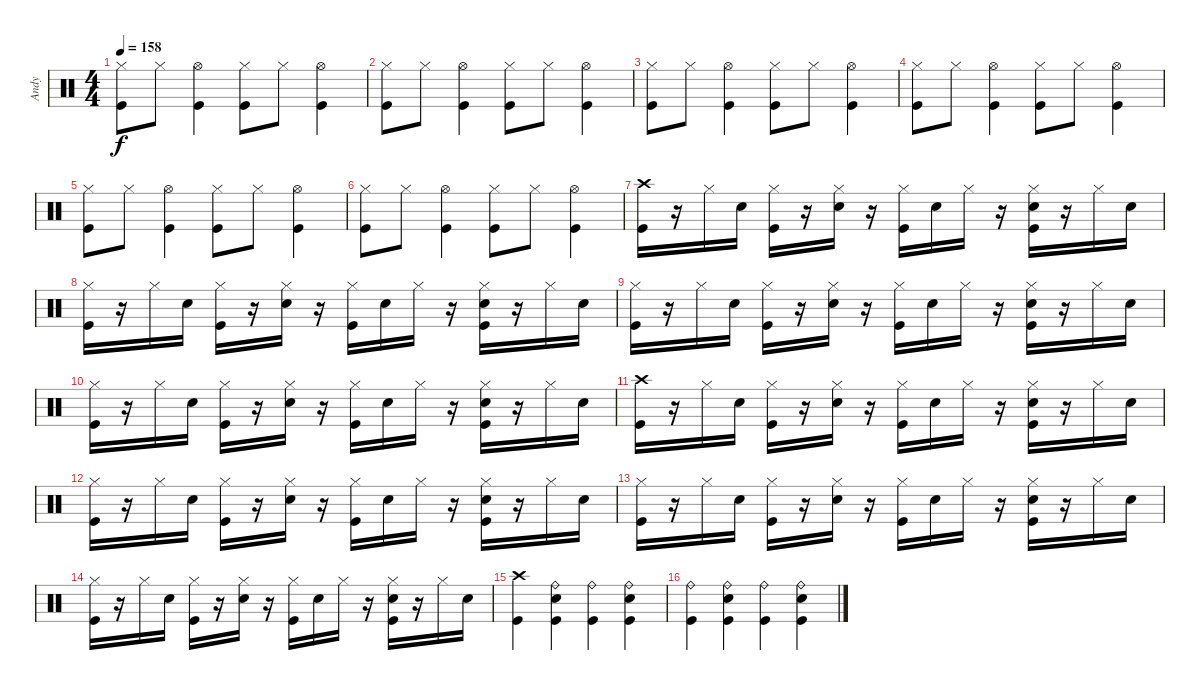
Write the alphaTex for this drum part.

\track ("Andy" "Andy") {instrument percussion}
\staff {score}
\articulation defaults
\ts (4 4)
\tempo 158
\clef neutral
\ks c
("Hi-Hat (closed)" "Kick (hit)").8{dy f} "Hi-Hat (closed)".8 ("Hi-Hat (open)" "Kick (hit)").4 ("Hi-Hat (closed)" "Kick (hit)").8 "Hi-Hat (closed)".8 ("Hi-Hat (open)" "Kick (hit)").4 |
("Hi-Hat (closed)" "Kick (hit)").8 "Hi-Hat (closed)".8 ("Hi-Hat (open)" "Kick (hit)").4 ("Hi-Hat (closed)" "Kick (hit)").8 "Hi-Hat (closed)".8 ("Hi-Hat (open)" "Kick (hit)").4 |
("Hi-Hat (closed)" "Kick (hit)").8 "Hi-Hat (closed)".8 ("Hi-Hat (open)" "Kick (hit)").4 ("Hi-Hat (closed)" "Kick (hit)").8 "Hi-Hat (closed)".8 ("Hi-Hat (open)" "Kick (hit)").4 |
("Hi-Hat (closed)" "Kick (hit)").8 "Hi-Hat (closed)".8 ("Hi-Hat (open)" "Kick (hit)").4 ("Hi-Hat (closed)" "Kick (hit)").8 "Hi-Hat (closed)".8 ("Hi-Hat (open)" "Kick (hit)").4 |
("Hi-Hat (closed)" "Kick (hit)").8 "Hi-Hat (closed)".8 ("Hi-Hat (open)" "Kick (hit)").4 ("Hi-Hat (closed)" "Kick (hit)").8 "Hi-Hat (closed)".8 ("Hi-Hat (open)" "Kick (hit)").4 |
("Hi-Hat (closed)" "Kick (hit)").8 "Hi-Hat (closed)".8 ("Hi-Hat (open)" "Kick (hit)").4 ("Hi-Hat (closed)" "Kick (hit)").8 "Hi-Hat (closed)".8 ("Hi-Hat (open)" "Kick (hit)").4 |
("Kick (hit)" "Crash high (hit)").16 r.16 "Hi-Hat (closed)".16 "Snare (hit) 2".16 ("Kick (hit)" "Hi-Hat (closed)").16 r.16 ("Hi-Hat (closed)" "Snare (hit) 2").16 r.16 ("Kick (hit)" "Hi-Hat (closed)").16 "Snare (hit) 2".16 "Hi-Hat (closed)".16 r.16 ("Kick (hit)" "Hi-Hat (closed)" "Snare (hit) 2").16 r.16 "Hi-Hat (closed)".16 "Snare (hit) 2".16 |
("Kick (hit)" "Hi-Hat (closed)").16 r.16 "Hi-Hat (closed)".16 "Snare (hit) 2".16 ("Kick (hit)" "Hi-Hat (closed)").16 r.16 ("Hi-Hat (closed)" "Snare (hit) 2").16 r.16 ("Kick (hit)" "Hi-Hat (closed)").16 "Snare (hit) 2".16 "Hi-Hat (closed)".16 r.16 ("Kick (hit)" "Hi-Hat (closed)" "Snare (hit) 2").16 r.16 "Hi-Hat (closed)".16 "Snare (hit) 2".16 |
("Kick (hit)" "Hi-Hat (closed)").16 r.16 "Hi-Hat (closed)".16 "Snare (hit) 2".16 ("Kick (hit)" "Hi-Hat (closed)").16 r.16 ("Hi-Hat (closed)" "Snare (hit) 2").16 r.16 ("Kick (hit)" "Hi-Hat (closed)").16 "Snare (hit) 2".16 "Hi-Hat (closed)".16 r.16 ("Kick (hit)" "Hi-Hat (closed)" "Snare (hit) 2").16 r.16 "Hi-Hat (closed)".16 "Snare (hit) 2".16 |
("Kick (hit)" "Hi-Hat (closed)").16 r.16 "Hi-Hat (closed)".16 "Snare (hit) 2".16 ("Kick (hit)" "Hi-Hat (closed)").16 r.16 ("Hi-Hat (closed)" "Snare (hit) 2").16 r.16 ("Kick (hit)" "Hi-Hat (closed)").16 "Snare (hit) 2".16 "Hi-Hat (closed)".16 r.16 ("Kick (hit)" "Hi-Hat (closed)" "Snare (hit) 2").16 r.16 "Hi-Hat (closed)".16 "Snare (hit) 2".16 |
("Kick (hit)" "Crash high (hit)").16 r.16 "Hi-Hat (closed)".16 "Snare (hit) 2".16 ("Kick (hit)" "Hi-Hat (closed)").16 r.16 ("Hi-Hat (closed)" "Snare (hit) 2").16 r.16 ("Kick (hit)" "Hi-Hat (closed)").16 "Snare (hit) 2".16 "Hi-Hat (closed)".16 r.16 ("Kick (hit)" "Hi-Hat (closed)" "Snare (hit) 2").16 r.16 "Hi-Hat (closed)".16 "Snare (hit) 2".16 |
("Kick (hit)" "Hi-Hat (closed)").16 r.16 "Hi-Hat (closed)".16 "Snare (hit) 2".16 ("Kick (hit)" "Hi-Hat (closed)").16 r.16 ("Hi-Hat (closed)" "Snare (hit) 2").16 r.16 ("Kick (hit)" "Hi-Hat (closed)").16 "Snare (hit) 2".16 "Hi-Hat (closed)".16 r.16 ("Kick (hit)" "Hi-Hat (closed)" "Snare (hit) 2").16 r.16 "Hi-Hat (closed)".16 "Snare (hit) 2".16 |
("Kick (hit)" "Hi-Hat (closed)").16 r.16 "Hi-Hat (closed)".16 "Snare (hit) 2".16 ("Kick (hit)" "Hi-Hat (closed)").16 r.16 ("Hi-Hat (closed)" "Snare (hit) 2").16 r.16 ("Kick (hit)" "Hi-Hat (closed)").16 "Snare (hit) 2".16 "Hi-Hat (closed)".16 r.16 ("Kick (hit)" "Hi-Hat (closed)" "Snare (hit) 2").16 r.16 "Hi-Hat (closed)".16 "Snare (hit) 2".16 |
("Kick (hit)" "Hi-Hat (closed)").16 r.16 "Hi-Hat (closed)".16 "Snare (hit) 2".16 ("Kick (hit)" "Hi-Hat (closed)").16 r.16 ("Hi-Hat (closed)" "Snare (hit) 2").16 r.16 ("Kick (hit)" "Hi-Hat (closed)").16 "Snare (hit) 2".16 "Hi-Hat (closed)".16 r.16 ("Kick (hit)" "Hi-Hat (closed)" "Snare (hit) 2").16 r.16 "Hi-Hat (closed)".16 "Snare (hit) 2".16 |
("Kick (hit)" "Crash high (hit)").4 ("Kick (hit)" "Snare (hit) 2" "Ride (bell)").4 ("Kick (hit)" "Ride (bell)").4 ("Kick (hit)" "Snare (hit) 2" "Ride (bell)").4 |
("Kick (hit)" "Ride (bell)").4 ("Kick (hit)" "Snare (hit) 2" "Ride (bell)").4 ("Kick (hit)" "Ride (bell)").4 ("Kick (hit)" "Snare (hit) 2" "Ride (bell)").4
